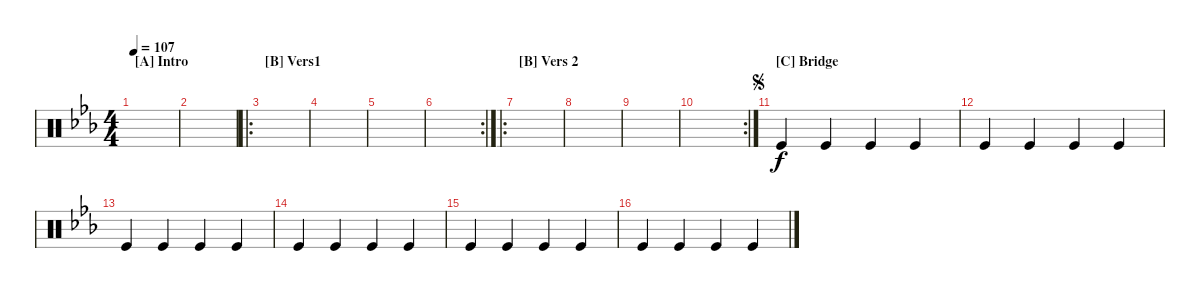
\defaultSystemsLayout 4
\bracketExtendMode groupsimilarinstruments
\singleTrackTrackNamePolicy hidden
\firstSystemTrackNameOrientation horizontal
\otherSystemsTrackNameOrientation horizontal
\chordDiagramsInScore
\track ("Tambourine" "Tamb.") {instrument percussion}
\staff {score}
\articulation defaults
\ts (4 4)
\section ("A" "Intro")
\ac
\tempo 107
\clef neutral
\ks cminor
|
|
\ro
\section ("B" "Vers1")
\scale
0.327117 |
\scale
0.253198 |
\scale
0.193789 |
\rc 2
\scale
0.225861 |
\ro
\section ("B" "Vers 2")
|
|
|
\rc 2
|
\section ("C" "Bridge")
\jump segno "Kick (hit)".4 "Kick (hit)".4 "Kick (hit)".4 "Kick (hit)".4
|
"Kick (hit)".4 "Kick (hit)".4 "Kick (hit)".4 "Kick (hit)".4 |
"Kick (hit)".4 "Kick (hit)".4 "Kick (hit)".4 "Kick (hit)".4 |
"Kick (hit)".4 "Kick (hit)".4 "Kick (hit)".4 "Kick (hit)".4 |
"Kick (hit)".4 "Kick (hit)".4 "Kick (hit)".4 "Kick (hit)".4 |
"Kick (hit)".4 "Kick (hit)".4 "Kick (hit)".4 "Kick (hit)".4
